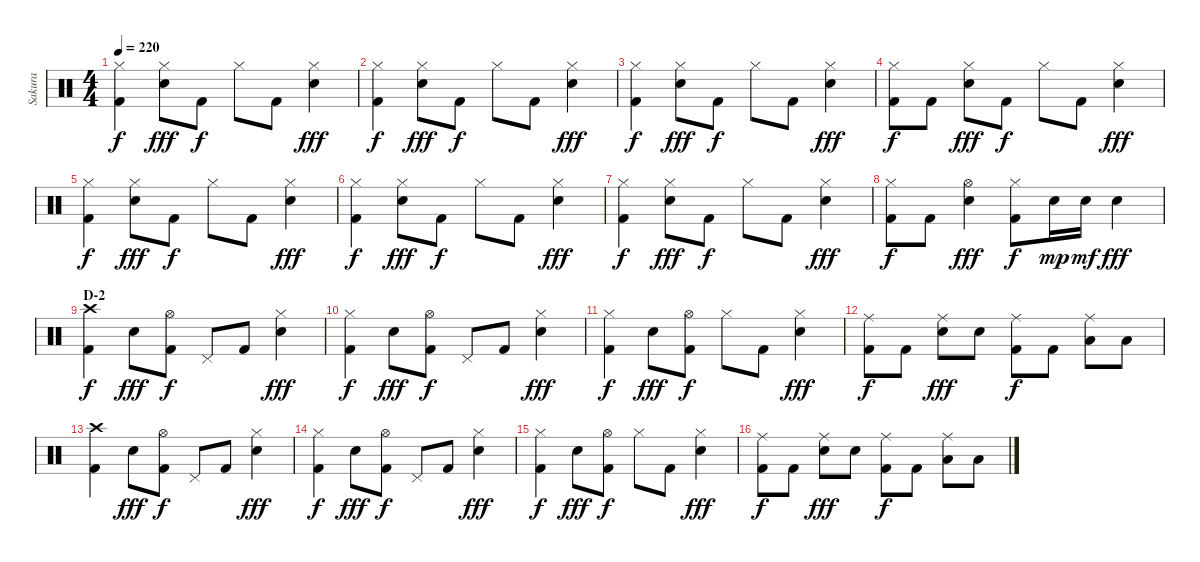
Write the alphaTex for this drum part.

\track ("Sakura" "Sakura") {instrument percussion}
\staff {score}
\articulation defaults
\ts (4 4)
\tempo 220
\clef neutral
\ks c
("Hi-Hat (closed)" "Kick (hit) 2").4{dy f} ("Hi-Hat (closed)" "Electric Snare (hit)").8{dy fff} "Kick (hit) 2".8{dy f} "Hi-Hat (closed)".8 "Kick (hit) 2".8 ("Hi-Hat (closed)" "Electric Snare (hit)").4{dy fff} |
("Hi-Hat (closed)" "Kick (hit) 2").4{dy f} ("Hi-Hat (closed)" "Electric Snare (hit)").8{dy fff} "Kick (hit) 2".8{dy f} "Hi-Hat (closed)".8 "Kick (hit) 2".8 ("Hi-Hat (closed)" "Electric Snare (hit)").4{dy fff} |
("Hi-Hat (closed)" "Kick (hit) 2").4{dy f} ("Hi-Hat (closed)" "Electric Snare (hit)").8{dy fff} "Kick (hit) 2".8{dy f} "Hi-Hat (closed)".8 "Kick (hit) 2".8 ("Hi-Hat (closed)" "Electric Snare (hit)").4{dy fff} |
("Hi-Hat (closed)" "Kick (hit) 2").8{dy f} "Kick (hit) 2".8 ("Hi-Hat (closed)" "Electric Snare (hit)").8{dy fff} "Kick (hit) 2".8{dy f} "Hi-Hat (closed)".8 "Kick (hit) 2".8 ("Hi-Hat (closed)" "Electric Snare (hit)").4{dy fff} |
("Hi-Hat (closed)" "Kick (hit) 2").4{dy f} ("Hi-Hat (closed)" "Electric Snare (hit)").8{dy fff} "Kick (hit) 2".8{dy f} "Hi-Hat (closed)".8 "Kick (hit) 2".8 ("Hi-Hat (closed)" "Electric Snare (hit)").4{dy fff} |
("Hi-Hat (closed)" "Kick (hit) 2").4{dy f} ("Hi-Hat (closed)" "Electric Snare (hit)").8{dy fff} "Kick (hit) 2".8{dy f} "Hi-Hat (closed)".8 "Kick (hit) 2".8 ("Hi-Hat (closed)" "Electric Snare (hit)").4{dy fff} |
("Hi-Hat (closed)" "Kick (hit) 2").4{dy f} ("Hi-Hat (closed)" "Electric Snare (hit)").8{dy fff} "Kick (hit) 2".8{dy f} "Hi-Hat (closed)".8 "Kick (hit) 2".8 ("Hi-Hat (closed)" "Electric Snare (hit)").4{dy fff} |
("Hi-Hat (closed)" "Kick (hit) 2").8{dy f} "Kick (hit) 2".8 ("Hi-Hat (open)" "Electric Snare (hit)").4{dy fff} ("Hi-Hat (closed)" "Kick (hit) 2").8{dy f} "Electric Snare (hit)".16{dy mp} "Electric Snare (hit)".16{dy mf} "Electric Snare (hit)".4{dy fff} |
\section ("" "D-2")
("Crash high (hit)" "Kick (hit) 2").4{dy f} "Electric Snare (hit)".8{dy fff} ("Hi-Hat (open)" "Kick (hit) 2").8{dy f} "Pedal Hi-Hat (hit)".8 "Kick (hit) 2".8 ("Hi-Hat (closed)" "Electric Snare (hit)").4{dy fff} |
("Hi-Hat (closed)" "Kick (hit) 2").4{dy f} "Electric Snare (hit)".8{dy fff} ("Hi-Hat (open)" "Kick (hit) 2").8{dy f} "Pedal Hi-Hat (hit)".8 "Kick (hit) 2".8 ("Hi-Hat (closed)" "Electric Snare (hit)").4{dy fff} |
("Hi-Hat (closed)" "Kick (hit) 2").4{dy f} "Electric Snare (hit)".8{dy fff} ("Hi-Hat (open)" "Kick (hit) 2").8{dy f} "Hi-Hat (closed)".8 "Kick (hit) 2".8 ("Hi-Hat (closed)" "Electric Snare (hit)").4{dy fff} |
("Ride (middle)" "Kick (hit) 2").8{dy f} "Kick (hit) 2".8 ("Ride (middle)" "Electric Snare (hit)").8{dy fff} "Electric Snare (hit)".8 ("Ride (middle)" "Kick (hit) 2").8{dy f} "Kick (hit) 2".8 ("Ride (middle)" "Low Tom (hit)").8 "Low Tom (hit)".8 |
("Crash high (hit)" "Kick (hit) 2").4 "Electric Snare (hit)".8{dy fff} ("Hi-Hat (open)" "Kick (hit) 2").8{dy f} "Pedal Hi-Hat (hit)".8 "Kick (hit) 2".8 ("Hi-Hat (closed)" "Electric Snare (hit)").4{dy fff} |
("Hi-Hat (closed)" "Kick (hit) 2").4{dy f} "Electric Snare (hit)".8{dy fff} ("Hi-Hat (open)" "Kick (hit) 2").8{dy f} "Pedal Hi-Hat (hit)".8 "Kick (hit) 2".8 ("Hi-Hat (closed)" "Electric Snare (hit)").4{dy fff} |
("Hi-Hat (closed)" "Kick (hit) 2").4{dy f} "Electric Snare (hit)".8{dy fff} ("Hi-Hat (open)" "Kick (hit) 2").8{dy f} "Hi-Hat (closed)".8 "Kick (hit) 2".8 ("Hi-Hat (closed)" "Electric Snare (hit)").4{dy fff} |
("Ride (middle)" "Kick (hit) 2").8{dy f} "Kick (hit) 2".8 ("Ride (middle)" "Electric Snare (hit)").8{dy fff} "Electric Snare (hit)".8 ("Ride (middle)" "Kick (hit) 2").8{dy f} "Kick (hit) 2".8 ("Ride (middle)" "Low Tom (hit)").8 "Low Tom (hit)".8
